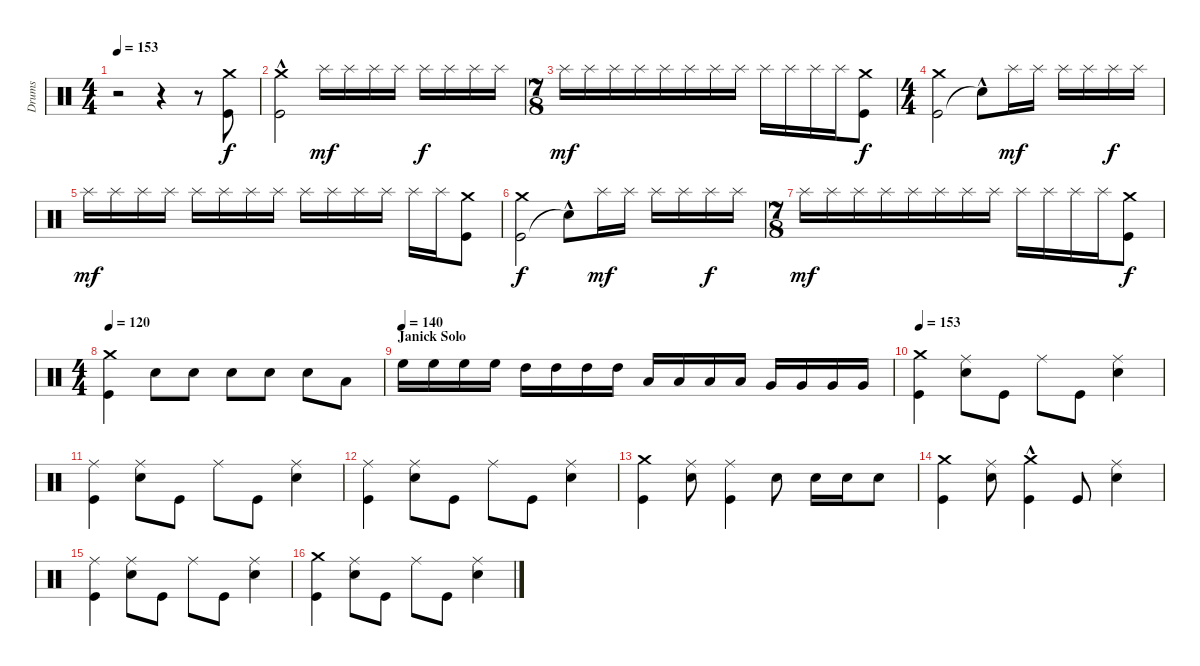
\track ("Drums" "Drums") {instrument percussion}
\staff {score}
\articulation defaults
\ts (4 4)
\tempo 153
\tempo 117
\tempo 153
\clef neutral
\ks c
r.2{dy f} r.4 r.8 ("Crash medium (hit)" "Kick (hit)").8 |
("Kick (hit)" "Crash medium (hit)"{hac}).2 "Splash (hit)".16{dy mf} "Splash (hit)".16 "Splash (hit)".16 "Splash (hit)".16 "Splash (hit)".16{dy f} "Splash (hit)".16 "Splash (hit)".16 "Splash (hit)".16 |
\ts (7 8)
"Splash (hit)".16{dy mf} "Splash (hit)".16 "Splash (hit)".16 "Splash (hit)".16 "Splash (hit)".16 "Splash (hit)".16 "Splash (hit)".16 "Splash (hit)".16 "Splash (hit)".16 "Splash (hit)".16 "Splash (hit)".16 "Splash (hit)".16 ("Crash medium (hit)" "Kick (hit)").8{dy f} |
\ts (4 4)
("Kick (hit)" "Crash medium (hit)").2 "Snare (hit)"{hac t}.8 "Splash (hit)".16{dy mf} "Splash (hit)".16 "Splash (hit)".16 "Splash (hit)".16 "Splash (hit)".16{dy f} "Splash (hit)".16 |
"Splash (hit)".16{dy mf} "Splash (hit)".16 "Splash (hit)".16 "Splash (hit)".16 "Splash (hit)".16 "Splash (hit)".16 "Splash (hit)".16 "Splash (hit)".16 "Splash (hit)".16 "Splash (hit)".16 "Splash (hit)".16 "Splash (hit)".16 "Splash (hit)".16 "Splash (hit)".16 ("Crash medium (hit)" "Kick (hit)").8 |
("Kick (hit)" "Crash medium (hit)").2{dy f} "Snare (hit)"{hac t}.8 "Splash (hit)".16{dy mf} "Splash (hit)".16 "Splash (hit)".16 "Splash (hit)".16 "Splash (hit)".16{dy f} "Splash (hit)".16 |
\ts (7 8)
"Splash (hit)".16{dy mf} "Splash (hit)".16 "Splash (hit)".16 "Splash (hit)".16 "Splash (hit)".16 "Splash (hit)".16 "Splash (hit)".16 "Splash (hit)".16 "Splash (hit)".16 "Splash (hit)".16 "Splash (hit)".16 "Splash (hit)".16 ("Crash medium (hit)" "Kick (hit)").8{dy f} |
\ts (4 4)
\tempo 120
("Crash medium (hit)" "Kick (hit)").4 "Snare (hit) 2".8 "Snare (hit) 2".8 "Snare (hit) 2".8 "Snare (hit) 2".8 "Snare (hit) 2".8 "Low Tom (hit)".8 |
\section ("" "Janick Solo")
\tempo (140)
"High Floor Tom (hit)".16 "High Floor Tom (hit)".16 "High Floor Tom (hit)".16 "High Floor Tom (hit)".16 "High Tom (hit)".16 "High Tom (hit)".16 "High Tom (hit)".16 "High Tom (hit)".16 "Low Tom (hit)".16 "Low Tom (hit)".16 "Low Tom (hit)".16 "Low Tom (hit)".16 "Very Low Tom (hit)".16 "Very Low Tom (hit)".16 "Very Low Tom (hit)".16 "Very Low Tom (hit)".16 |
\section ("" "")
\tempo 153
("Crash medium (hit)" "Kick (hit)").4 ("Ride (middle)" "Snare (hit) 2").8 "Kick (hit)".8 "Ride (middle)".8 "Kick (hit)".8 ("Ride (middle)" "Snare (hit) 2").4 |
("Kick (hit)" "Ride (middle)").4 ("Ride (middle)" "Snare (hit) 2").8 "Kick (hit)".8 "Ride (middle)".8 "Kick (hit)".8 ("Ride (middle)" "Snare (hit) 2").4 |
("Kick (hit)" "Ride (middle)").4 ("Ride (middle)" "Snare (hit) 2").8 "Kick (hit)".8 "Ride (middle)".8 "Kick (hit)".8 ("Ride (middle)" "Snare (hit) 2").4 |
("Crash medium (hit)" "Kick (hit)").4 ("Snare (hit) 2" "Ride (middle)").8 ("Kick (hit)" "Ride (middle)").4 "Snare (hit) 2".8 "Snare (hit) 2".16 "Snare (hit) 2".16 "Snare (hit) 2".8 |
("Kick (hit)" "Crash medium (hit)").4 ("Ride (middle)" "Snare (hit) 2").8 ("Crash medium (hit)"{hac} "Kick (hit)").4 "Kick (hit)".8 ("Ride (middle)" "Snare (hit) 2").4 |
("Kick (hit)" "Ride (middle)").4 ("Snare (hit) 2" "Ride (middle)").8 "Kick (hit)".8 "Ride (middle)".8 "Kick (hit)".8 ("Snare (hit) 2" "Ride (middle)").4 |
("Kick (hit)" "Crash medium (hit)").4 ("Snare (hit) 2" "Ride (middle)").8 "Kick (hit)".8 "Ride (middle)".8 "Kick (hit)".8 ("Ride (middle)" "Snare (hit) 2").4
